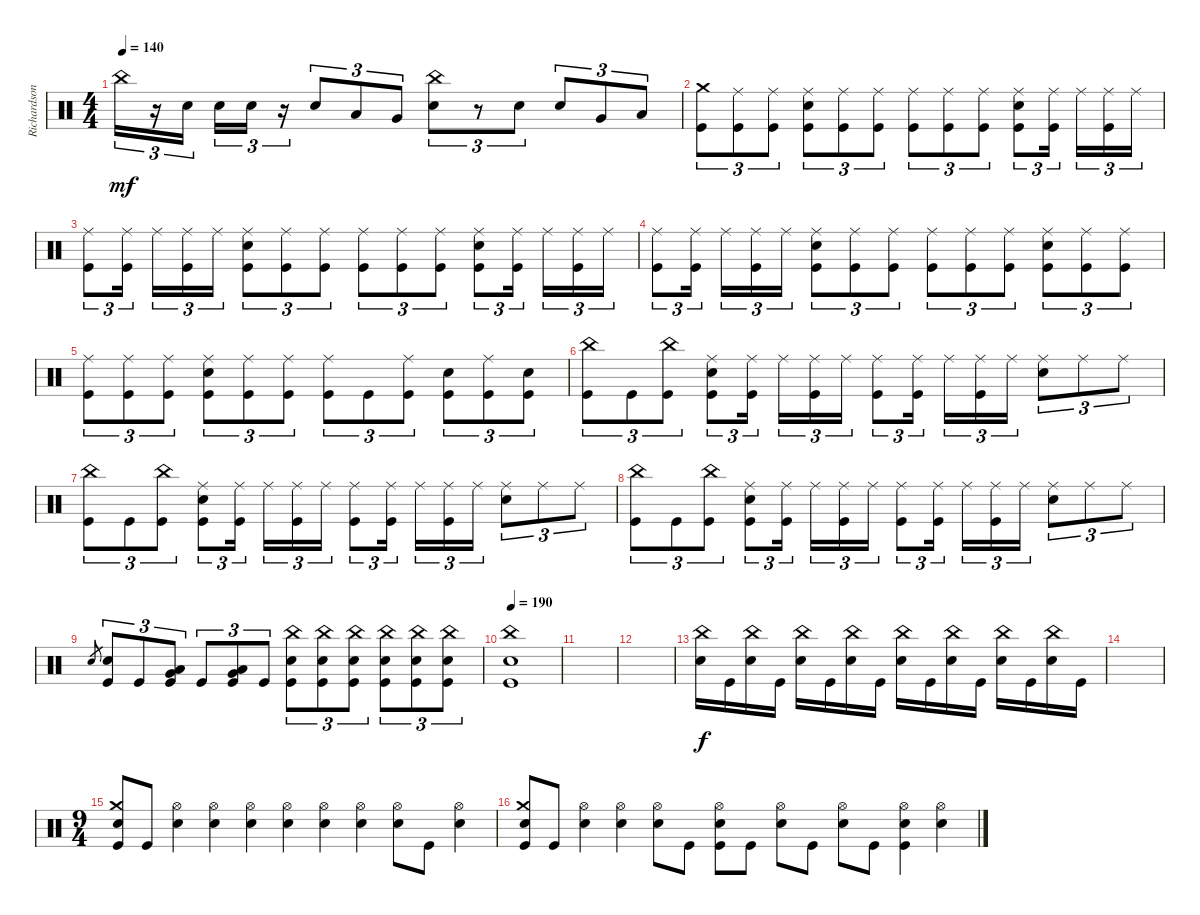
\track ("Richardson" "Richardson") {instrument percussion}
\staff {score}
\articulation defaults
\ts (4 4)
\tempo 140
\clef neutral
\ks c "China (hit)".16{tu (3 2) dy mf}
r.16{tu (3 2)} "Electric Snare (hit)".16{tu (3 2) beam splitsecondary} "Electric Snare (hit)".16{tu (3 2)} "Electric Snare (hit)".16{tu (3 2)} r.16{tu (3 2)} "Electric Snare (hit)".8{tu (3 2)} "Low Tom (hit)".8{tu (3 2)} "Very Low Tom (hit)".8{tu (3 2)} ("China (hit)" "Electric Snare (hit)").8{tu (3 2)} r.8{tu (3 2)} "Electric Snare (hit)".8{tu (3 2)} "Electric Snare (hit)".8{tu (3 2)} "Very Low Tom (hit)".8{tu (3 2)} "Low Floor Tom (hit)".8{tu (3 2)} |
("Crash medium (hit)" "Kick (hit)").8{tu (3 2)} ("Ride (middle)" "Kick (hit)").8{tu (3 2)} ("Ride (middle)" "Kick (hit)").8{tu (3 2)} ("Ride (middle)" "Electric Snare (hit)" "Kick (hit)").8{tu (3 2)} ("Ride (middle)" "Kick (hit)").8{tu (3 2)} ("Ride (middle)" "Kick (hit)").8{tu (3 2)} ("Ride (middle)" "Kick (hit)").8{tu (3 2)} ("Ride (middle)" "Kick (hit)").8{tu (3 2)} ("Ride (middle)" "Kick (hit)").8{tu (3 2)} ("Ride (middle)" "Electric Snare (hit)" "Kick (hit)").8{tu (3 2)} ("Ride (middle)" "Kick (hit)").16{tu (3 2) beam splitsecondary} "Ride (middle)".16{tu (3 2)} ("Ride (middle)" "Kick (hit)").16{tu (3 2)} "Ride (middle)".16{tu (3 2)} |
("Ride (middle)" "Kick (hit)").8{tu (3 2)} ("Ride (middle)" "Kick (hit)").16{tu (3 2) beam splitsecondary} "Ride (middle)".16{tu (3 2)} ("Ride (middle)" "Kick (hit)").16{tu (3 2)} "Ride (middle)".16{tu (3 2)} ("Ride (middle)" "Electric Snare (hit)" "Kick (hit)").8{tu (3 2)} ("Ride (middle)" "Kick (hit)").8{tu (3 2)} ("Ride (middle)" "Kick (hit)").8{tu (3 2)} ("Ride (middle)" "Kick (hit)").8{tu (3 2)} ("Ride (middle)" "Kick (hit)").8{tu (3 2)} ("Ride (middle)" "Kick (hit)").8{tu (3 2)} ("Ride (middle)" "Electric Snare (hit)" "Kick (hit)").8{tu (3 2)} ("Ride (middle)" "Kick (hit)").16{tu (3 2) beam splitsecondary} "Ride (middle)".16{tu (3 2)} ("Ride (middle)" "Kick (hit)").16{tu (3 2)} "Ride (middle)".16{tu (3 2)} |
("Ride (middle)" "Kick (hit)").8{tu (3 2)} ("Ride (middle)" "Kick (hit)").16{tu (3 2) beam splitsecondary} "Ride (middle)".16{tu (3 2)} ("Ride (middle)" "Kick (hit)").16{tu (3 2)} "Ride (middle)".16{tu (3 2)} ("Ride (middle)" "Electric Snare (hit)" "Kick (hit)").8{tu (3 2)} ("Ride (middle)" "Kick (hit)").8{tu (3 2)} ("Ride (middle)" "Kick (hit)").8{tu (3 2)} ("Ride (middle)" "Kick (hit)").8{tu (3 2)} ("Ride (middle)" "Kick (hit)").8{tu (3 2)} ("Ride (middle)" "Kick (hit)").8{tu (3 2)} ("Ride (middle)" "Electric Snare (hit)" "Kick (hit)").8{tu (3 2)} ("Ride (middle)" "Kick (hit)").8{tu (3 2)} ("Ride (middle)" "Kick (hit)").8{tu (3 2)} |
("Ride (middle)" "Kick (hit)").8{tu (3 2)} ("Ride (middle)" "Kick (hit)").8{tu (3 2)} ("Ride (middle)" "Kick (hit)").8{tu (3 2)} ("Ride (middle)" "Electric Snare (hit)" "Kick (hit)").8{tu (3 2)} ("Ride (middle)" "Kick (hit)").8{tu (3 2)} ("Ride (middle)" "Kick (hit)").8{tu (3 2)} ("Ride (middle)" "Kick (hit)").8{tu (3 2)} "Kick (hit)".8{tu (3 2)} ("Ride (middle)" "Kick (hit)").8{tu (3 2)} ("Electric Snare (hit)" "Kick (hit)").8{tu (3 2)} ("Ride (middle)" "Kick (hit)").8{tu (3 2)} ("Electric Snare (hit)" "Kick (hit)").8{tu (3 2)} |
("China (hit)" "Kick (hit)").8{tu (3 2)} "Kick (hit)".8{tu (3 2)} ("China (hit)" "Kick (hit)").8{tu (3 2)} ("Ride (middle)" "Electric Snare (hit)" "Kick (hit)").8{tu (3 2)} ("Ride (middle)" "Kick (hit)").16{tu (3 2) beam splitsecondary} "Ride (middle)".16{tu (3 2)} ("Ride (middle)" "Kick (hit)").16{tu (3 2)} "Ride (middle)".16{tu (3 2)} ("Ride (middle)" "Kick (hit)").8{tu (3 2)} ("Ride (middle)" "Kick (hit)").16{tu (3 2) beam splitsecondary} "Ride (middle)".16{tu (3 2)} ("Ride (middle)" "Kick (hit)").16{tu (3 2)} "Ride (middle)".16{tu (3 2)} ("Ride (middle)" "Electric Snare (hit)").8{tu (3 2)} "Ride (middle)".8{tu (3 2)} "Ride (middle)".8{tu (3 2)} |
("China (hit)" "Kick (hit)").8{tu (3 2)} "Kick (hit)".8{tu (3 2)} ("China (hit)" "Kick (hit)").8{tu (3 2)} ("Ride (middle)" "Electric Snare (hit)" "Kick (hit)").8{tu (3 2)} ("Ride (middle)" "Kick (hit)").16{tu (3 2) beam splitsecondary} "Ride (middle)".16{tu (3 2)} ("Ride (middle)" "Kick (hit)").16{tu (3 2)} "Ride (middle)".16{tu (3 2)} ("Ride (middle)" "Kick (hit)").8{tu (3 2)} ("Ride (middle)" "Kick (hit)").16{tu (3 2) beam splitsecondary} "Ride (middle)".16{tu (3 2)} ("Ride (middle)" "Kick (hit)").16{tu (3 2)} "Ride (middle)".16{tu (3 2)} ("Ride (middle)" "Electric Snare (hit)").8{tu (3 2)} "Ride (middle)".8{tu (3 2)} "Ride (middle)".8{tu (3 2)} |
("China (hit)" "Kick (hit)").8{tu (3 2)} "Kick (hit)".8{tu (3 2)} ("China (hit)" "Kick (hit)").8{tu (3 2)} ("Ride (middle)" "Electric Snare (hit)" "Kick (hit)").8{tu (3 2)} ("Ride (middle)" "Kick (hit)").16{tu (3 2) beam splitsecondary} "Ride (middle)".16{tu (3 2)} ("Ride (middle)" "Kick (hit)").16{tu (3 2)} "Ride (middle)".16{tu (3 2)} ("Ride (middle)" "Kick (hit)").8{tu (3 2)} ("Ride (middle)" "Kick (hit)").16{tu (3 2) beam splitsecondary} "Ride (middle)".16{tu (3 2)} ("Ride (middle)" "Kick (hit)").16{tu (3 2)} "Ride (middle)".16{tu (3 2)} ("Ride (middle)" "Electric Snare (hit)").8{tu (3 2)} "Ride (middle)".8{tu (3 2)} "Ride (middle)".8{tu (3 2)} |
"Electric Snare (hit)".8{gr} ("Electric Snare (hit)" "Kick (hit)").8{tu (3 2)} "Kick (hit)".8{tu (3 2)} ("Low Tom (hit)" "Very Low Tom (hit)" "Kick (hit)").8{tu (3 2)} "Kick (hit)".8{tu (3 2)} ("Very Low Tom (hit)" "Low Floor Tom (hit)" "Kick (hit)").8{tu (3 2)} "Kick (hit)".8{tu (3 2)} ("China (hit)" "Electric Snare (hit)" "Kick (hit)").8{tu (3 2)} ("China (hit)" "Electric Snare (hit)" "Kick (hit)").8{tu (3 2)} ("China (hit)" "Electric Snare (hit)" "Kick (hit)").8{tu (3 2)} ("China (hit)" "Electric Snare (hit)" "Kick (hit)").8{tu (3 2)} ("China (hit)" "Electric Snare (hit)" "Kick (hit)").8{tu (3 2)} ("China (hit)" "Electric Snare (hit)" "Kick (hit)").8{tu (3 2)} |
\tempo 190
("China (hit)" "Electric Snare (hit)" "Kick (hit)").1 |
|
|
("China (hit)" "Electric Snare (hit)").16{dy f} "Kick (hit)".16 ("China (hit)" "Electric Snare (hit)").16 "Kick (hit)".16 ("China (hit)" "Electric Snare (hit)").16 "Kick (hit)".16 ("China (hit)" "Electric Snare (hit)").16 "Kick (hit)".16 ("China (hit)" "Electric Snare (hit)").16 "Kick (hit)".16 ("China (hit)" "Electric Snare (hit)").16 "Kick (hit)".16 ("China (hit)" "Electric Snare (hit)").16 "Kick (hit)".16 ("China (hit)" "Electric Snare (hit)").16 "Kick (hit)".16 |
|
\ts (9 4)
("Crash medium (hit)" "Electric Snare (hit)" "Kick (hit)").8 "Kick (hit)".8 ("Hi-Hat (open)" "Electric Snare (hit)").4 ("Hi-Hat (open)" "Electric Snare (hit)").4 ("Hi-Hat (open)" "Electric Snare (hit)").4 ("Hi-Hat (open)" "Electric Snare (hit)").4 ("Hi-Hat (open)" "Electric Snare (hit)").4 ("Hi-Hat (open)" "Electric Snare (hit)").4 ("Hi-Hat (open)" "Electric Snare (hit)").8 "Kick (hit)".8 ("Hi-Hat (open)" "Electric Snare (hit)").4 |
("Crash medium (hit)" "Electric Snare (hit)" "Kick (hit)").8 "Kick (hit)".8 ("Hi-Hat (open)" "Electric Snare (hit)").4 ("Hi-Hat (open)" "Electric Snare (hit)").4 ("Hi-Hat (open)" "Electric Snare (hit)").8 "Kick (hit)".8 ("Hi-Hat (open)" "Electric Snare (hit)" "Kick (hit)").8 "Kick (hit)".8 ("Hi-Hat (open)" "Electric Snare (hit)").8 "Kick (hit)".8 ("Hi-Hat (open)" "Electric Snare (hit)").8 "Kick (hit)".8 ("Hi-Hat (open)" "Electric Snare (hit)" "Kick (hit)").4 ("Hi-Hat (open)" "Electric Snare (hit)").4
